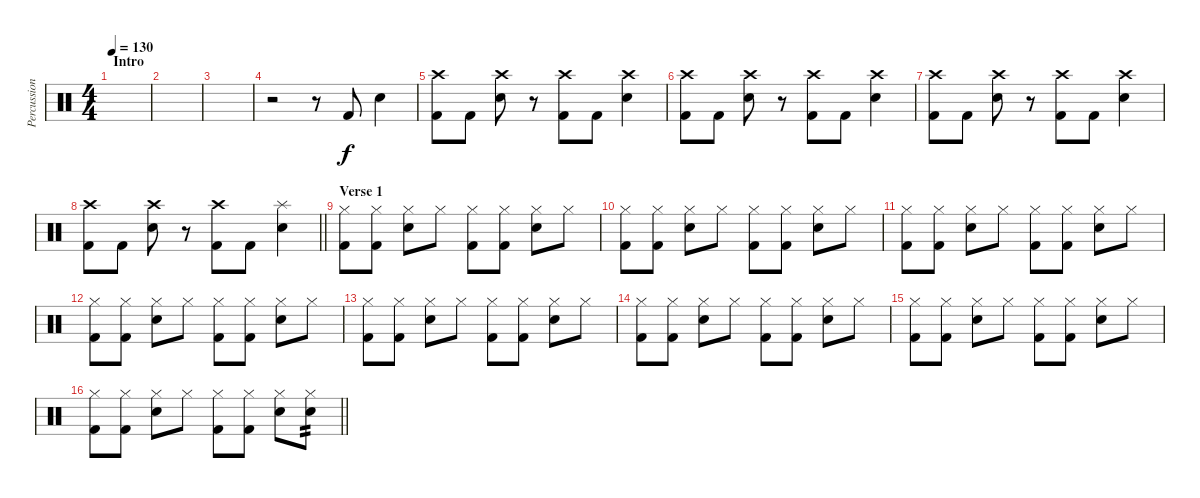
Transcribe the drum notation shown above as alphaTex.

\track ("Percussion" "Percussion") {instrument percussion}
\staff {score}
\articulation defaults
\ts (4 4)
\section ("" "Intro")
\tempo 130
\clef neutral
\ks c
|
|
|
r.2 r.8 "Kick (hit) 2".8 "Electric Snare (hit)".4 |
("Crash high (hit)" "Kick (hit) 2").8 "Kick (hit) 2".8 ("Crash high (hit)" "Electric Snare (hit)").8 r.8 ("Crash high (hit)" "Kick (hit) 2").8 "Kick (hit) 2".8 ("Crash high (hit)" "Electric Snare (hit)").4 |
("Crash high (hit)" "Kick (hit) 2").8 "Kick (hit) 2".8 ("Crash high (hit)" "Electric Snare (hit)").8 r.8 ("Crash high (hit)" "Kick (hit) 2").8 "Kick (hit) 2".8 ("Crash high (hit)" "Electric Snare (hit)").4 |
("Crash high (hit)" "Kick (hit) 2").8 "Kick (hit) 2".8 ("Crash high (hit)" "Electric Snare (hit)").8 r.8 ("Crash high (hit)" "Kick (hit) 2").8 "Kick (hit) 2".8 ("Crash high (hit)" "Electric Snare (hit)").4 |
\barLineRight lightlight
("Crash high (hit)" "Kick (hit) 2").8 "Kick (hit) 2".8 ("Crash high (hit)" "Electric Snare (hit)").8 r.8 ("Crash high (hit)" "Kick (hit) 2").8 "Kick (hit) 2".8 ("Splash (hit)" "Electric Snare (hit)").4 |
\section ("" "Verse 1")
("Hi-Hat (closed)" "Kick (hit) 2").8 ("Hi-Hat (closed)" "Kick (hit) 2").8 ("Hi-Hat (closed)" "Electric Snare (hit)").8 "Hi-Hat (closed)".8 ("Hi-Hat (closed)" "Kick (hit) 2").8 ("Hi-Hat (closed)" "Kick (hit) 2").8 ("Hi-Hat (closed)" "Electric Snare (hit)").8 "Hi-Hat (closed)".8 |
("Hi-Hat (closed)" "Kick (hit) 2").8 ("Hi-Hat (closed)" "Kick (hit) 2").8 ("Hi-Hat (closed)" "Electric Snare (hit)").8 "Hi-Hat (closed)".8 ("Hi-Hat (closed)" "Kick (hit) 2").8 ("Hi-Hat (closed)" "Kick (hit) 2").8 ("Hi-Hat (closed)" "Electric Snare (hit)").8 "Hi-Hat (closed)".8 |
("Hi-Hat (closed)" "Kick (hit) 2").8 ("Hi-Hat (closed)" "Kick (hit) 2").8 ("Hi-Hat (closed)" "Electric Snare (hit)").8 "Hi-Hat (closed)".8 ("Hi-Hat (closed)" "Kick (hit) 2").8 ("Hi-Hat (closed)" "Kick (hit) 2").8 ("Hi-Hat (closed)" "Electric Snare (hit)").8 "Hi-Hat (closed)".8 |
("Hi-Hat (closed)" "Kick (hit) 2").8 ("Hi-Hat (closed)" "Kick (hit) 2").8 ("Hi-Hat (closed)" "Electric Snare (hit)").8 "Hi-Hat (closed)".8 ("Hi-Hat (closed)" "Kick (hit) 2").8 ("Hi-Hat (closed)" "Kick (hit) 2").8 ("Hi-Hat (closed)" "Electric Snare (hit)").8 "Hi-Hat (closed)".8 |
("Hi-Hat (closed)" "Kick (hit) 2").8 ("Hi-Hat (closed)" "Kick (hit) 2").8 ("Hi-Hat (closed)" "Electric Snare (hit)").8 "Hi-Hat (closed)".8 ("Hi-Hat (closed)" "Kick (hit) 2").8 ("Hi-Hat (closed)" "Kick (hit) 2").8 ("Hi-Hat (closed)" "Electric Snare (hit)").8 "Hi-Hat (closed)".8 |
("Hi-Hat (closed)" "Kick (hit) 2").8 ("Hi-Hat (closed)" "Kick (hit) 2").8 ("Hi-Hat (closed)" "Electric Snare (hit)").8 "Hi-Hat (closed)".8 ("Hi-Hat (closed)" "Kick (hit) 2").8 ("Hi-Hat (closed)" "Kick (hit) 2").8 ("Hi-Hat (closed)" "Electric Snare (hit)").8 "Hi-Hat (closed)".8 |
("Hi-Hat (closed)" "Kick (hit) 2").8 ("Hi-Hat (closed)" "Kick (hit) 2").8 ("Hi-Hat (closed)" "Electric Snare (hit)").8 "Hi-Hat (closed)".8 ("Hi-Hat (closed)" "Kick (hit) 2").8 ("Hi-Hat (closed)" "Kick (hit) 2").8 ("Hi-Hat (closed)" "Electric Snare (hit)").8 "Hi-Hat (closed)".8 |
\barLineRight lightlight
("Hi-Hat (closed)" "Kick (hit) 2").8 ("Hi-Hat (closed)" "Kick (hit) 2").8 ("Hi-Hat (closed)" "Electric Snare (hit)").8 "Hi-Hat (closed)".8 ("Hi-Hat (closed)" "Kick (hit) 2").8 ("Hi-Hat (closed)" "Kick (hit) 2").8 ("Hi-Hat (closed)" "Electric Snare (hit)").8 ("Hi-Hat (closed)" "Electric Snare (hit)").8{tp 2}
